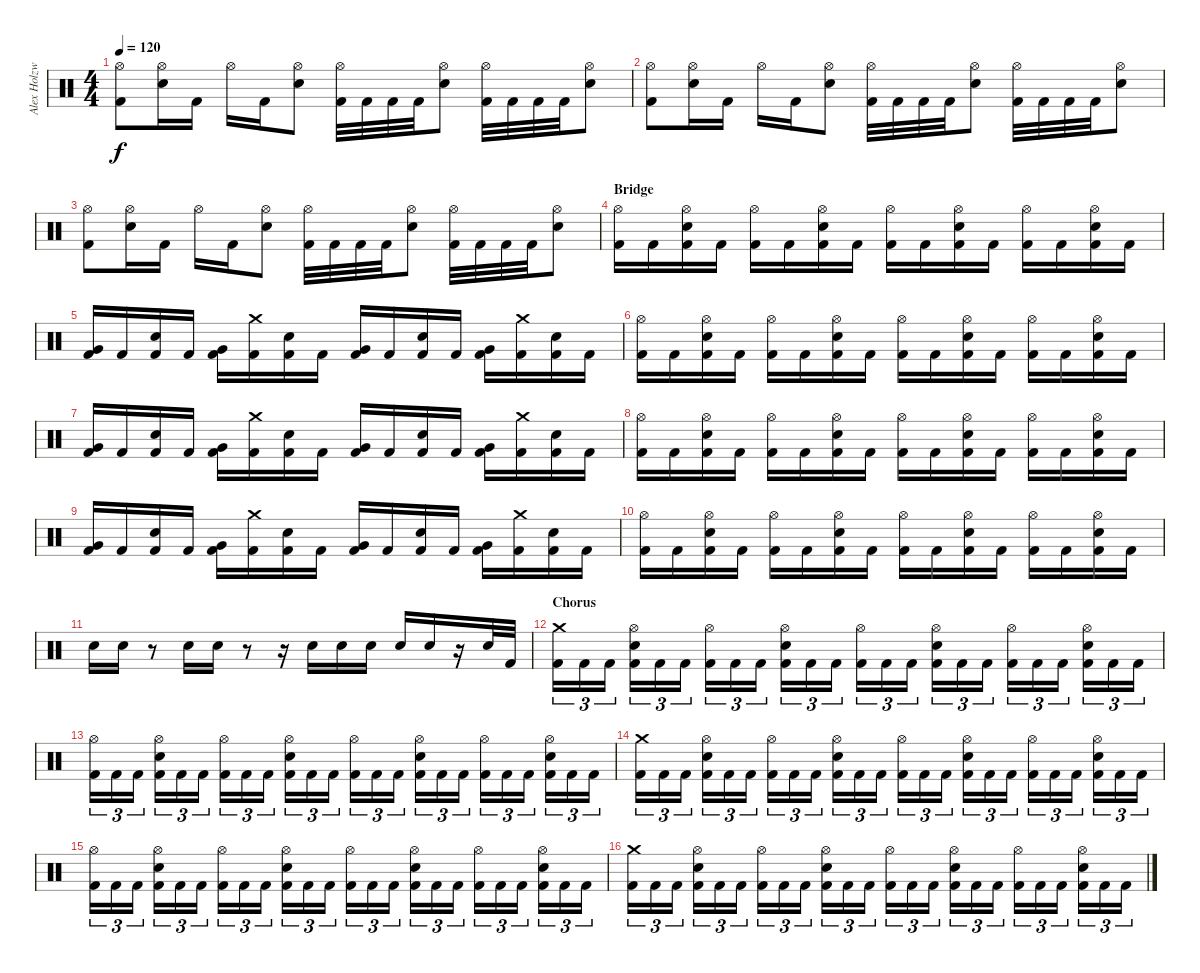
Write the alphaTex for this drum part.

\track ("Alex Holzwarth - Drums" "Alex Holzw") {instrument percussion}
\staff {score}
\articulation defaults
\ts (4 4)
\tempo 120
\clef neutral
\ks c
("Hi-Hat (open)" "Kick (hit) 2").8{dy f} ("Hi-Hat (open)" "Electric Snare (hit)").16 "Kick (hit) 2".16 "Hi-Hat (open)".16 "Kick (hit) 2".16 ("Hi-Hat (open)" "Electric Snare (hit)").8 ("Hi-Hat (open)" "Kick (hit) 2").32 "Kick (hit) 2".32 "Kick (hit) 2".32 "Kick (hit) 2".32 ("Hi-Hat (open)" "Electric Snare (hit)").8 ("Hi-Hat (open)" "Kick (hit) 2").32 "Kick (hit) 2".32 "Kick (hit) 2".32 "Kick (hit) 2".32 ("Hi-Hat (open)" "Electric Snare (hit)").8 |
("Hi-Hat (open)" "Kick (hit) 2").8 ("Hi-Hat (open)" "Electric Snare (hit)").16 "Kick (hit) 2".16 "Hi-Hat (open)".16 "Kick (hit) 2".16 ("Hi-Hat (open)" "Electric Snare (hit)").8 ("Hi-Hat (open)" "Kick (hit) 2").32 "Kick (hit) 2".32 "Kick (hit) 2".32 "Kick (hit) 2".32 ("Hi-Hat (open)" "Electric Snare (hit)").8 ("Hi-Hat (open)" "Kick (hit) 2").32 "Kick (hit) 2".32 "Kick (hit) 2".32 "Kick (hit) 2".32 ("Hi-Hat (open)" "Electric Snare (hit)").8 |
("Hi-Hat (open)" "Kick (hit) 2").8 ("Hi-Hat (open)" "Electric Snare (hit)").16 "Kick (hit) 2".16 "Hi-Hat (open)".16 "Kick (hit) 2".16 ("Hi-Hat (open)" "Electric Snare (hit)").8 ("Hi-Hat (open)" "Kick (hit) 2").32 "Kick (hit) 2".32 "Kick (hit) 2".32 "Kick (hit) 2".32 ("Hi-Hat (open)" "Electric Snare (hit)").8 ("Hi-Hat (open)" "Kick (hit) 2").32 "Kick (hit) 2".32 "Kick (hit) 2".32 "Kick (hit) 2".32 ("Hi-Hat (open)" "Electric Snare (hit)").8 |
\section ("" "Bridge")
("Hi-Hat (open)" "Kick (hit) 2").16 "Kick (hit) 2".16 ("Hi-Hat (open)" "Electric Snare (hit)" "Kick (hit) 2").16 "Kick (hit) 2".16 ("Hi-Hat (open)" "Kick (hit) 2").16 "Kick (hit) 2".16 ("Hi-Hat (open)" "Electric Snare (hit)" "Kick (hit) 2").16 "Kick (hit) 2".16 ("Hi-Hat (open)" "Kick (hit) 2").16 "Kick (hit) 2".16 ("Hi-Hat (open)" "Electric Snare (hit)" "Kick (hit) 2").16 "Kick (hit) 2".16 ("Hi-Hat (open)" "Kick (hit) 2").16 "Kick (hit) 2".16 ("Hi-Hat (open)" "Electric Snare (hit)" "Kick (hit) 2").16 "Kick (hit) 2".16 |
("Very Low Tom (hit)" "Kick (hit) 2").16 "Kick (hit) 2".16 ("Electric Snare (hit)" "Kick (hit) 2").16 "Kick (hit) 2".16 ("Very Low Tom (hit)" "Kick (hit) 2").16 ("Crash medium (hit)" "Kick (hit) 2").16 ("Electric Snare (hit)" "Kick (hit) 2").16 "Kick (hit) 2".16 ("Very Low Tom (hit)" "Kick (hit) 2").16 "Kick (hit) 2".16 ("Electric Snare (hit)" "Kick (hit) 2").16 "Kick (hit) 2".16 ("Very Low Tom (hit)" "Kick (hit) 2").16 ("Crash medium (hit)" "Kick (hit) 2").16 ("Electric Snare (hit)" "Kick (hit) 2").16 "Kick (hit) 2".16 |
("Hi-Hat (open)" "Kick (hit) 2").16 "Kick (hit) 2".16 ("Hi-Hat (open)" "Electric Snare (hit)" "Kick (hit) 2").16 "Kick (hit) 2".16 ("Hi-Hat (open)" "Kick (hit) 2").16 "Kick (hit) 2".16 ("Hi-Hat (open)" "Electric Snare (hit)" "Kick (hit) 2").16 "Kick (hit) 2".16 ("Hi-Hat (open)" "Kick (hit) 2").16 "Kick (hit) 2".16 ("Hi-Hat (open)" "Electric Snare (hit)" "Kick (hit) 2").16 "Kick (hit) 2".16 ("Hi-Hat (open)" "Kick (hit) 2").16 "Kick (hit) 2".16 ("Hi-Hat (open)" "Electric Snare (hit)" "Kick (hit) 2").16 "Kick (hit) 2".16 |
("Very Low Tom (hit)" "Kick (hit) 2").16 "Kick (hit) 2".16 ("Electric Snare (hit)" "Kick (hit) 2").16 "Kick (hit) 2".16 ("Very Low Tom (hit)" "Kick (hit) 2").16 ("Crash medium (hit)" "Kick (hit) 2").16 ("Electric Snare (hit)" "Kick (hit) 2").16 "Kick (hit) 2".16 ("Very Low Tom (hit)" "Kick (hit) 2").16 "Kick (hit) 2".16 ("Electric Snare (hit)" "Kick (hit) 2").16 "Kick (hit) 2".16 ("Very Low Tom (hit)" "Kick (hit) 2").16 ("Crash medium (hit)" "Kick (hit) 2").16 ("Electric Snare (hit)" "Kick (hit) 2").16 "Kick (hit) 2".16 |
("Hi-Hat (open)" "Kick (hit) 2").16 "Kick (hit) 2".16 ("Hi-Hat (open)" "Electric Snare (hit)" "Kick (hit) 2").16 "Kick (hit) 2".16 ("Hi-Hat (open)" "Kick (hit) 2").16 "Kick (hit) 2".16 ("Hi-Hat (open)" "Electric Snare (hit)" "Kick (hit) 2").16 "Kick (hit) 2".16 ("Hi-Hat (open)" "Kick (hit) 2").16 "Kick (hit) 2".16 ("Hi-Hat (open)" "Electric Snare (hit)" "Kick (hit) 2").16 "Kick (hit) 2".16 ("Hi-Hat (open)" "Kick (hit) 2").16 "Kick (hit) 2".16 ("Hi-Hat (open)" "Electric Snare (hit)" "Kick (hit) 2").16 "Kick (hit) 2".16 |
("Very Low Tom (hit)" "Kick (hit) 2").16 "Kick (hit) 2".16 ("Electric Snare (hit)" "Kick (hit) 2").16 "Kick (hit) 2".16 ("Very Low Tom (hit)" "Kick (hit) 2").16 ("Crash medium (hit)" "Kick (hit) 2").16 ("Electric Snare (hit)" "Kick (hit) 2").16 "Kick (hit) 2".16 ("Very Low Tom (hit)" "Kick (hit) 2").16 "Kick (hit) 2".16 ("Electric Snare (hit)" "Kick (hit) 2").16 "Kick (hit) 2".16 ("Very Low Tom (hit)" "Kick (hit) 2").16 ("Crash medium (hit)" "Kick (hit) 2").16 ("Electric Snare (hit)" "Kick (hit) 2").16 "Kick (hit) 2".16 |
("Hi-Hat (open)" "Kick (hit) 2").16 "Kick (hit) 2".16 ("Hi-Hat (open)" "Electric Snare (hit)" "Kick (hit) 2").16 "Kick (hit) 2".16 ("Hi-Hat (open)" "Kick (hit) 2").16 "Kick (hit) 2".16 ("Hi-Hat (open)" "Electric Snare (hit)" "Kick (hit) 2").16 "Kick (hit) 2".16 ("Hi-Hat (open)" "Kick (hit) 2").16 "Kick (hit) 2".16 ("Hi-Hat (open)" "Electric Snare (hit)" "Kick (hit) 2").16 "Kick (hit) 2".16 ("Hi-Hat (open)" "Kick (hit) 2").16 "Kick (hit) 2".16 ("Hi-Hat (open)" "Electric Snare (hit)" "Kick (hit) 2").16 "Kick (hit) 2".16 |
"Electric Snare (hit)".16 "Electric Snare (hit)".16 r.8 "Electric Snare (hit)".16 "Electric Snare (hit)".16 r.8 r.16 "Electric Snare (hit)".16 "Electric Snare (hit)".16 "Electric Snare (hit)".16 "Electric Snare (hit)".16 "Electric Snare (hit)".16 r.16 "Electric Snare (hit)".32 "Kick (hit) 2".32 |
\section ("" "Chorus")
("Crash medium (hit)" "Kick (hit) 2").16{tu (3 2)} "Kick (hit) 2".16{tu (3 2)} "Kick (hit) 2".16{tu (3 2)} ("Hi-Hat (open)" "Electric Snare (hit)" "Kick (hit) 2").16{tu (3 2)} "Kick (hit) 2".16{tu (3 2)} "Kick (hit) 2".16{tu (3 2)} ("Hi-Hat (open)" "Kick (hit) 2").16{tu (3 2)} "Kick (hit) 2".16{tu (3 2)} "Kick (hit) 2".16{tu (3 2)} ("Hi-Hat (open)" "Electric Snare (hit)" "Kick (hit) 2").16{tu (3 2)} "Kick (hit) 2".16{tu (3 2)} "Kick (hit) 2".16{tu (3 2)} ("Hi-Hat (open)" "Kick (hit) 2").16{tu (3 2)} "Kick (hit) 2".16{tu (3 2)} "Kick (hit) 2".16{tu (3 2)} ("Hi-Hat (open)" "Electric Snare (hit)" "Kick (hit) 2").16{tu (3 2)} "Kick (hit) 2".16{tu (3 2)} "Kick (hit) 2".16{tu (3 2)} ("Hi-Hat (open)" "Kick (hit) 2").16{tu (3 2)} "Kick (hit) 2".16{tu (3 2)} "Kick (hit) 2".16{tu (3 2)} ("Hi-Hat (open)" "Electric Snare (hit)" "Kick (hit) 2").16{tu (3 2)} "Kick (hit) 2".16{tu (3 2)} "Kick (hit) 2".16{tu (3 2)} |
("Hi-Hat (open)" "Kick (hit) 2").16{tu (3 2)} "Kick (hit) 2".16{tu (3 2)} "Kick (hit) 2".16{tu (3 2)} ("Hi-Hat (open)" "Electric Snare (hit)" "Kick (hit) 2").16{tu (3 2)} "Kick (hit) 2".16{tu (3 2)} "Kick (hit) 2".16{tu (3 2)} ("Hi-Hat (open)" "Kick (hit) 2").16{tu (3 2)} "Kick (hit) 2".16{tu (3 2)} "Kick (hit) 2".16{tu (3 2)} ("Hi-Hat (open)" "Electric Snare (hit)" "Kick (hit) 2").16{tu (3 2)} "Kick (hit) 2".16{tu (3 2)} "Kick (hit) 2".16{tu (3 2)} ("Hi-Hat (open)" "Kick (hit) 2").16{tu (3 2)} "Kick (hit) 2".16{tu (3 2)} "Kick (hit) 2".16{tu (3 2)} ("Hi-Hat (open)" "Electric Snare (hit)" "Kick (hit) 2").16{tu (3 2)} "Kick (hit) 2".16{tu (3 2)} "Kick (hit) 2".16{tu (3 2)} ("Hi-Hat (open)" "Kick (hit) 2").16{tu (3 2)} "Kick (hit) 2".16{tu (3 2)} "Kick (hit) 2".16{tu (3 2)} ("Hi-Hat (open)" "Electric Snare (hit)" "Kick (hit) 2").16{tu (3 2)} "Kick (hit) 2".16{tu (3 2)} "Kick (hit) 2".16{tu (3 2)} |
("Crash medium (hit)" "Kick (hit) 2").16{tu (3 2)} "Kick (hit) 2".16{tu (3 2)} "Kick (hit) 2".16{tu (3 2)} ("Hi-Hat (open)" "Electric Snare (hit)" "Kick (hit) 2").16{tu (3 2)} "Kick (hit) 2".16{tu (3 2)} "Kick (hit) 2".16{tu (3 2)} ("Hi-Hat (open)" "Kick (hit) 2").16{tu (3 2)} "Kick (hit) 2".16{tu (3 2)} "Kick (hit) 2".16{tu (3 2)} ("Hi-Hat (open)" "Electric Snare (hit)" "Kick (hit) 2").16{tu (3 2)} "Kick (hit) 2".16{tu (3 2)} "Kick (hit) 2".16{tu (3 2)} ("Hi-Hat (open)" "Kick (hit) 2").16{tu (3 2)} "Kick (hit) 2".16{tu (3 2)} "Kick (hit) 2".16{tu (3 2)} ("Hi-Hat (open)" "Electric Snare (hit)" "Kick (hit) 2").16{tu (3 2)} "Kick (hit) 2".16{tu (3 2)} "Kick (hit) 2".16{tu (3 2)} ("Hi-Hat (open)" "Kick (hit) 2").16{tu (3 2)} "Kick (hit) 2".16{tu (3 2)} "Kick (hit) 2".16{tu (3 2)} ("Hi-Hat (open)" "Electric Snare (hit)" "Kick (hit) 2").16{tu (3 2)} "Kick (hit) 2".16{tu (3 2)} "Kick (hit) 2".16{tu (3 2)} |
("Hi-Hat (open)" "Kick (hit) 2").16{tu (3 2)} "Kick (hit) 2".16{tu (3 2)} "Kick (hit) 2".16{tu (3 2)} ("Hi-Hat (open)" "Electric Snare (hit)" "Kick (hit) 2").16{tu (3 2)} "Kick (hit) 2".16{tu (3 2)} "Kick (hit) 2".16{tu (3 2)} ("Hi-Hat (open)" "Kick (hit) 2").16{tu (3 2)} "Kick (hit) 2".16{tu (3 2)} "Kick (hit) 2".16{tu (3 2)} ("Hi-Hat (open)" "Electric Snare (hit)" "Kick (hit) 2").16{tu (3 2)} "Kick (hit) 2".16{tu (3 2)} "Kick (hit) 2".16{tu (3 2)} ("Hi-Hat (open)" "Kick (hit) 2").16{tu (3 2)} "Kick (hit) 2".16{tu (3 2)} "Kick (hit) 2".16{tu (3 2)} ("Hi-Hat (open)" "Electric Snare (hit)" "Kick (hit) 2").16{tu (3 2)} "Kick (hit) 2".16{tu (3 2)} "Kick (hit) 2".16{tu (3 2)} ("Hi-Hat (open)" "Kick (hit) 2").16{tu (3 2)} "Kick (hit) 2".16{tu (3 2)} "Kick (hit) 2".16{tu (3 2)} ("Hi-Hat (open)" "Electric Snare (hit)" "Kick (hit) 2").16{tu (3 2)} "Kick (hit) 2".16{tu (3 2)} "Kick (hit) 2".16{tu (3 2)} |
("Crash medium (hit)" "Kick (hit) 2").16{tu (3 2)} "Kick (hit) 2".16{tu (3 2)} "Kick (hit) 2".16{tu (3 2)} ("Hi-Hat (open)" "Electric Snare (hit)" "Kick (hit) 2").16{tu (3 2)} "Kick (hit) 2".16{tu (3 2)} "Kick (hit) 2".16{tu (3 2)} ("Hi-Hat (open)" "Kick (hit) 2").16{tu (3 2)} "Kick (hit) 2".16{tu (3 2)} "Kick (hit) 2".16{tu (3 2)} ("Hi-Hat (open)" "Electric Snare (hit)" "Kick (hit) 2").16{tu (3 2)} "Kick (hit) 2".16{tu (3 2)} "Kick (hit) 2".16{tu (3 2)} ("Hi-Hat (open)" "Kick (hit) 2").16{tu (3 2)} "Kick (hit) 2".16{tu (3 2)} "Kick (hit) 2".16{tu (3 2)} ("Hi-Hat (open)" "Electric Snare (hit)" "Kick (hit) 2").16{tu (3 2)} "Kick (hit) 2".16{tu (3 2)} "Kick (hit) 2".16{tu (3 2)} ("Hi-Hat (open)" "Kick (hit) 2").16{tu (3 2)} "Kick (hit) 2".16{tu (3 2)} "Kick (hit) 2".16{tu (3 2)} ("Hi-Hat (open)" "Electric Snare (hit)" "Kick (hit) 2").16{tu (3 2)} "Kick (hit) 2".16{tu (3 2)} "Kick (hit) 2".16{tu (3 2)}
